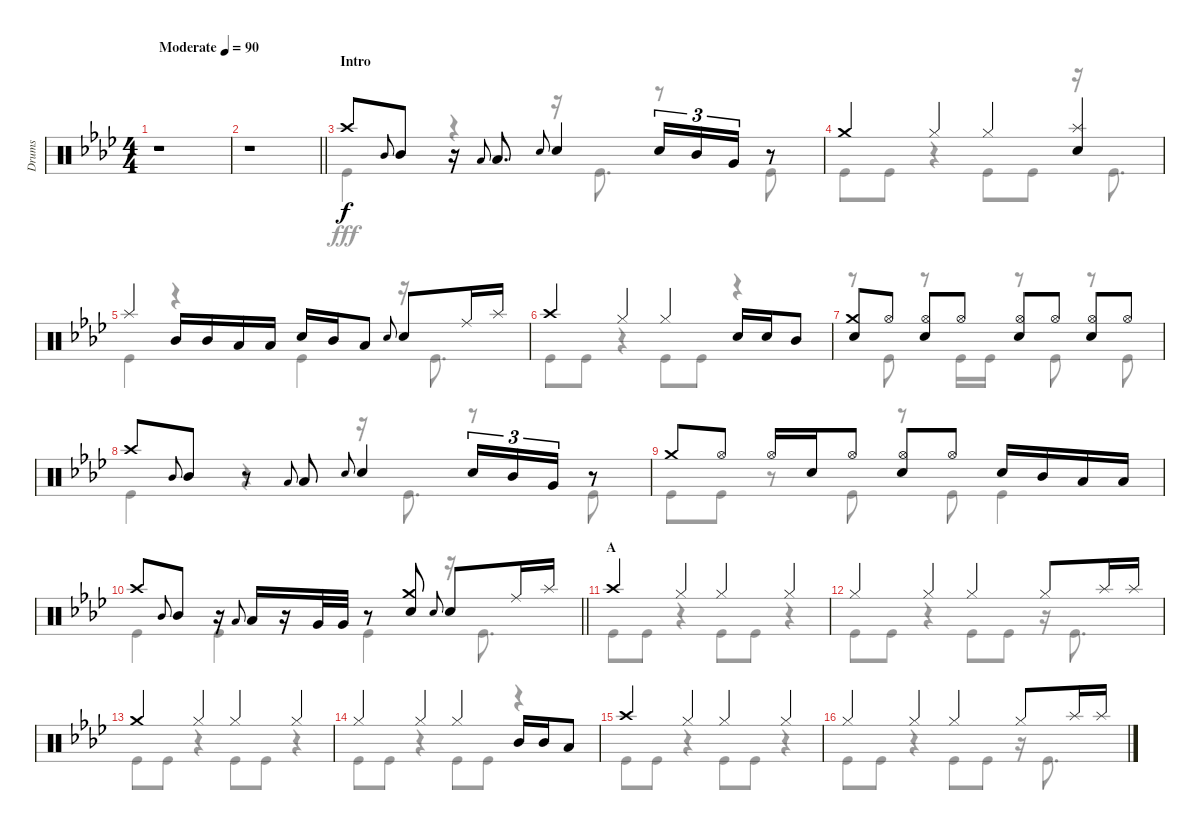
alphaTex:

\track ("Drums" "Drums") {instrument percussion}
\staff {score}
\articulation defaults
\voice
\ts (4 4)
\tempo (90 "Moderate")
\clef neutral
\ks ab
r.1{dy f} |
\barLineRight lightlight
r.1 |
\section ("" "Intro")
"Crash high (hit)".8 "Mid Tom (hit)".8{gr onbeat} "Mid Tom (hit)".8 r.16 "Low Tom (hit)".8{gr onbeat} "Low Tom (hit)".8{d} "Snare (hit) 2".8{gr onbeat} "Snare (hit) 2".4 "Snare (hit) 2".16{tu (3 2)} "Mid Tom (hit)".16{tu (3 2)} "Very Low Tom (hit)".16{tu (3 2)} r.8 |
"Crash medium (hit)".4 "Hi-Hat (closed)".4 "Hi-Hat (closed)".4 ("Splash (hit)" "Snare (hit) 2").4 |
"Splash (hit)".4 "Mid Tom (hit)".16 "Mid Tom (hit)".16 "Low Tom (hit)".16 "Low Tom (hit)".16 "Snare (hit) 2".16 "Mid Tom (hit)".16 "Low Tom (hit)".8 "Snare (hit) 2".8{gr onbeat} "Snare (hit) 2".8 "Ride (middle)".16 "Splash (hit)".16 |
"Crash high (hit)".4 "Hi-Hat (closed)".4 "Hi-Hat (closed)".4 "Snare (hit) 2".16 "Snare (hit) 2".16 "Mid Tom (hit)".8 |
("Crash medium (hit)" "Snare (hit) 2").8 "Hi-Hat (open)".8 ("Hi-Hat (open)" "Snare (hit) 2").8 "Hi-Hat (open)".8 ("Hi-Hat (open)" "Snare (hit) 2").8 "Hi-Hat (open)".8 ("Hi-Hat (open)" "Snare (hit) 2").8 "Hi-Hat (open)".8 |
"Crash high (hit)".8 "Mid Tom (hit)".8{gr onbeat} "Mid Tom (hit)".8 r.8 "Low Tom (hit)".8{gr onbeat} "Low Tom (hit)".8 "Snare (hit) 2".8{gr onbeat} "Snare (hit) 2".4 "Snare (hit) 2".16{tu (3 2)} "Mid Tom (hit)".16{tu (3 2)} "Very Low Tom (hit)".16{tu (3 2)} r.8 |
"Crash medium (hit)".8 "Hi-Hat (open)".8 "Hi-Hat (open)".16 "Snare (hit) 2".16 "Hi-Hat (open)".8 ("Hi-Hat (open)" "Snare (hit) 2").8 "Hi-Hat (open)".8 "Snare (hit) 2".16 "Mid Tom (hit)".16 "Low Tom (hit)".16 "Low Tom (hit)".16 |
\barLineRight lightlight "Crash high (hit)".8 "Mid Tom (hit)".8{gr onbeat} "Mid Tom (hit)".8
r.16 "Low Tom (hit)".8{gr onbeat} "Low Tom (hit)".16 r.16 "Very Low Tom (hit)".32 "Very Low Tom (hit)".32 r.8 ("Crash medium (hit)" "Snare (hit) 2").8 "Snare (hit) 2".8{gr onbeat} "Snare (hit) 2".8 "Ride (middle)".16 "Splash (hit)".16 |
\section ("" "A")
"Crash high (hit)".4 "Hi-Hat (closed)".4 "Hi-Hat (closed)".4 "Hi-Hat (closed)".4 |
"Hi-Hat (closed)".4 "Hi-Hat (closed)".4 "Hi-Hat (closed)".4 "Hi-Hat (closed)".8 "Splash (hit)".16 "Splash (hit)".16 |
"Crash medium (hit)".4 "Hi-Hat (closed)".4 "Hi-Hat (closed)".4 "Hi-Hat (closed)".4 |
"Hi-Hat (closed)".4 "Hi-Hat (closed)".4 "Hi-Hat (closed)".4 "Mid Tom (hit)".16 "Mid Tom (hit)".16 "Low Tom (hit)".8 |
"Crash high (hit)".4 "Hi-Hat (closed)".4 "Hi-Hat (closed)".4 "Hi-Hat (closed)".4 |
"Hi-Hat (closed)".4 "Hi-Hat (closed)".4 "Hi-Hat (closed)".4 "Hi-Hat (closed)".8 "Splash (hit)".16 "Splash (hit)".16
\voice
\clef neutral
\ottava regular
\simile none
\ks ab
r.1{dy fff} |
\barLineRight lightlight
r.1 |
"Kick (hit)".4 r.4 r.16 "Kick (hit)".8{d} r.8 "Kick (hit)".8 |
"Kick (hit)".8 "Kick (hit)".8 r.4 "Kick (hit)".8 "Kick (hit)".8 r.16 "Kick (hit)".8{d} |
"Kick (hit)".4 r.4 "Kick (hit)".4 r.16 "Kick (hit)".8{d} |
"Kick (hit)".8 "Kick (hit)".8 r.4 "Kick (hit)".8 "Kick (hit)".8 r.4 |
r.8 "Kick (hit)".8 r.8 "Kick (hit)".16 "Kick (hit)".16 r.8 "Kick (hit)".8 r.8 "Kick (hit)".8 |
"Kick (hit)".4 r.4 r.16 "Kick (hit)".8{d} r.8 "Kick (hit)".8 |
"Kick (hit)".8 "Kick (hit)".8 r.8 "Kick (hit)".8 r.8 "Kick (hit)".8 "Kick (hit)".4 |
\barLineRight lightlight "Kick (hit)".4 "Kick (hit)".4 "Kick (hit)".4
r.16 "Kick (hit)".8{d} |
"Kick (hit)".8 "Kick (hit)".8 r.4 "Kick (hit)".8 "Kick (hit)".8 r.4 |
"Kick (hit)".8 "Kick (hit)".8 r.4 "Kick (hit)".8 "Kick (hit)".8 r.16 "Kick (hit)".8{d} |
"Kick (hit)".8 "Kick (hit)".8 r.4 "Kick (hit)".8 "Kick (hit)".8 r.4 |
"Kick (hit)".8 "Kick (hit)".8 r.4 "Kick (hit)".8 "Kick (hit)".8 r.4 |
"Kick (hit)".8 "Kick (hit)".8 r.4 "Kick (hit)".8 "Kick (hit)".8 r.4 |
"Kick (hit)".8 "Kick (hit)".8 r.4 "Kick (hit)".8 "Kick (hit)".8 r.16 "Kick (hit)".8{d}
